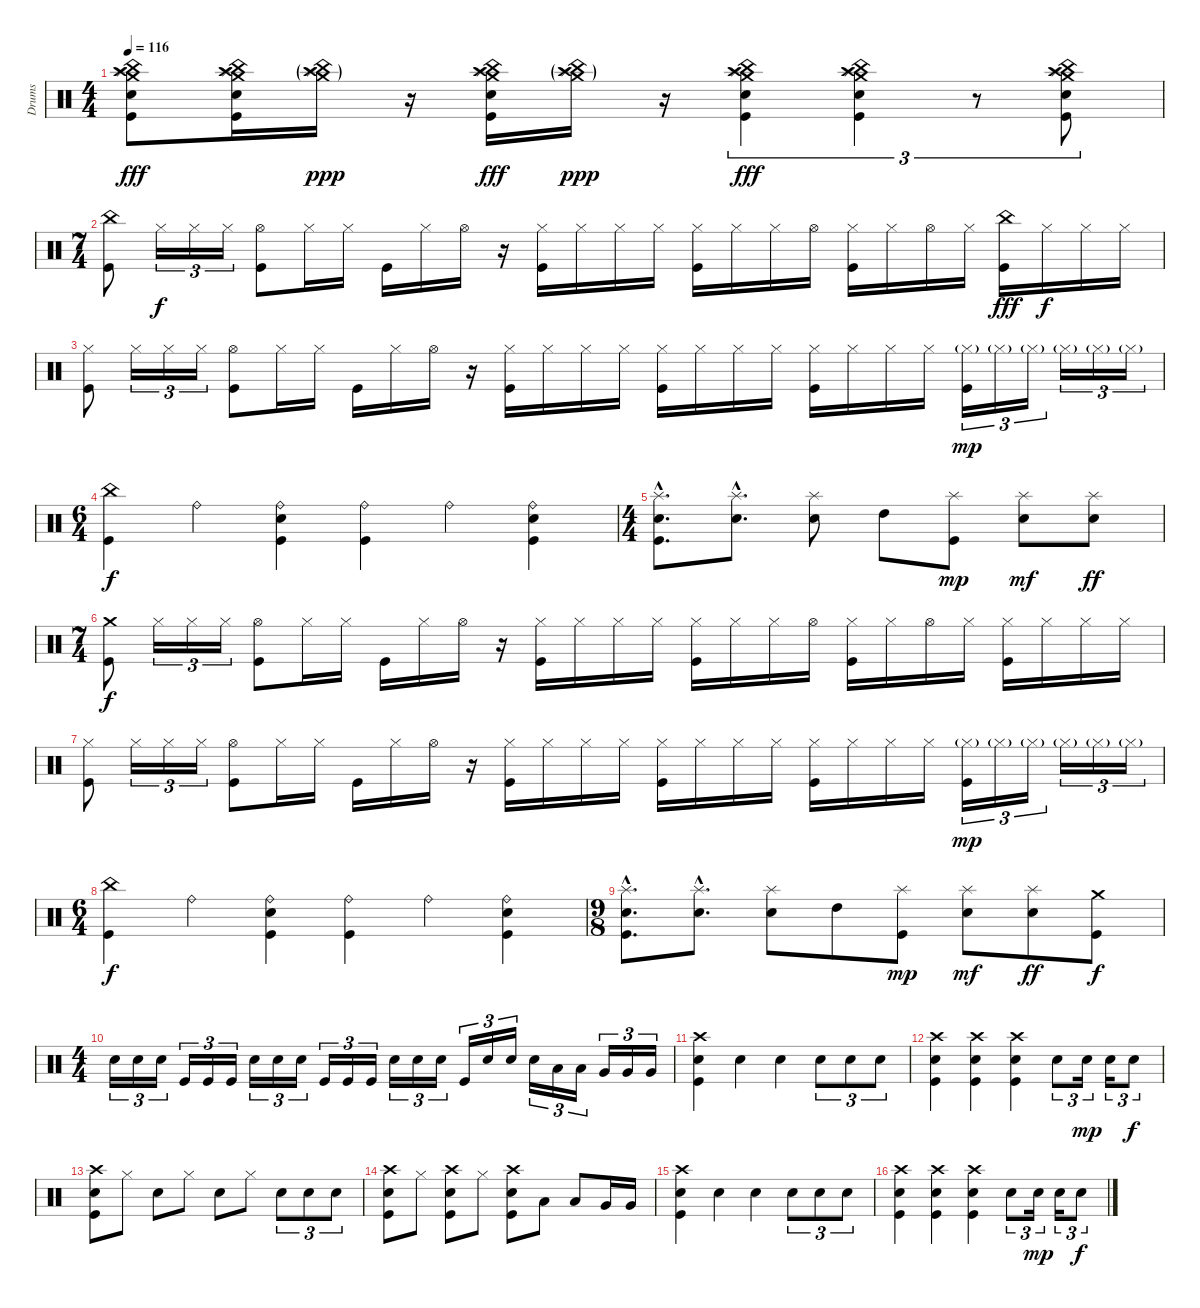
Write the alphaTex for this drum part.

\track ("Drums" "Drums") {instrument percussion}
\staff {score}
\articulation defaults
\ts (4 4)
\tempo 116
\clef neutral
\ks c
("Crash medium (hit)" "Crash high (hit)" "China (hit)" "Splash (hit)" "Electric Snare (hit)" "Kick (hit)").8{dy fff} ("Crash medium (hit)" "Crash high (hit)" "China (hit)" "Splash (hit)" "Electric Snare (hit)" "Kick (hit)").16 ("Crash medium (hit)"{g} "Crash high (hit)"{g} "China (hit)"{g} "Splash (hit)"{g}).16{dy ppp} r.16 ("Crash medium (hit)" "Crash high (hit)" "China (hit)" "Splash (hit)" "Electric Snare (hit)" "Kick (hit)").16{dy fff} ("Crash medium (hit)"{g} "Crash high (hit)"{g} "China (hit)"{g} "Splash (hit)"{g}).16{dy ppp} r.16 ("Crash medium (hit)" "Crash high (hit)" "China (hit)" "Splash (hit)" "Electric Snare (hit)" "Kick (hit)").4{tu (3 2) dy fff} ("Crash medium (hit)" "Crash high (hit)" "China (hit)" "Splash (hit)" "Electric Snare (hit)" "Kick (hit)").4{tu (3 2)} r.8{tu (3 2)} ("Crash medium (hit)" "Crash high (hit)" "China (hit)" "Splash (hit)" "Electric Snare (hit)" "Kick (hit)").8{tu (3 2)} |
\ts (7 4)
("China (hit)" "Kick (hit)").8 "Hi-Hat (closed)".16{tu (3 2) dy f} "Hi-Hat (closed)".16{tu (3 2)} "Hi-Hat (closed)".16{tu (3 2)} ("Hi-Hat (open)" "Kick (hit)").8 "Hi-Hat (closed)".16 "Hi-Hat (closed)".16 "Kick (hit)".16 "Hi-Hat (closed)".16 "Hi-Hat (open)".16 r.16 ("Hi-Hat (closed)" "Kick (hit)").16 "Hi-Hat (closed)".16 "Hi-Hat (closed)".16 "Hi-Hat (closed)".16 ("Hi-Hat (closed)" "Kick (hit)").16 "Hi-Hat (closed)".16 "Hi-Hat (closed)".16 "Hi-Hat (open)".16 ("Hi-Hat (closed)" "Kick (hit)").16 "Hi-Hat (closed)".16 "Hi-Hat (open)".16 "Hi-Hat (closed)".16 ("China (hit)" "Kick (hit)").16{dy fff} "Hi-Hat (closed)".16{dy f} "Hi-Hat (closed)".16 "Hi-Hat (closed)".16 |
("Hi-Hat (closed)" "Kick (hit)").8 "Hi-Hat (closed)".16{tu (3 2)} "Hi-Hat (closed)".16{tu (3 2)} "Hi-Hat (closed)".16{tu (3 2)} ("Hi-Hat (open)" "Kick (hit)").8 "Hi-Hat (closed)".16 "Hi-Hat (closed)".16 "Kick (hit)".16 "Hi-Hat (closed)".16 "Hi-Hat (open)".16 r.16 ("Hi-Hat (closed)" "Kick (hit)").16 "Hi-Hat (closed)".16 "Hi-Hat (closed)".16 "Hi-Hat (closed)".16 ("Hi-Hat (closed)" "Kick (hit)").16 "Hi-Hat (closed)".16 "Hi-Hat (closed)".16 "Hi-Hat (closed)".16 ("Hi-Hat (closed)" "Kick (hit)").16 "Hi-Hat (closed)".16 "Hi-Hat (closed)".16 "Hi-Hat (closed)".16 ("Hi-Hat (closed)"{g} "Kick (hit)").16{tu (3 2) dy mp} "Hi-Hat (closed)"{g}.16{tu (3 2)} "Hi-Hat (closed)"{g}.16{tu (3 2)} "Hi-Hat (closed)"{g}.16{tu (3 2)} "Hi-Hat (closed)"{g}.16{tu (3 2)} "Hi-Hat (closed)"{g}.16{tu (3 2)} |
\ts (6 4)
("China (hit)" "Kick (hit)").4{dy f} "Ride (bell)".4 ("Ride (bell)" "Electric Snare (hit)" "Kick (hit)").4 ("Ride (bell)" "Kick (hit)").4 "Ride (bell)".4 ("Ride (bell)" "Electric Snare (hit)" "Kick (hit)").4 |
\ts (4 4)
("Splash (hit)"{hac} "Electric Snare (hit)"{hac} "Kick (hit)"{hac}).8{d} ("Splash (hit)"{hac} "Electric Snare (hit)"{hac}).8{d} ("Splash (hit)" "Electric Snare (hit)").8 "High Tom (hit)".8 ("Splash (hit)" "Kick (hit)").8{dy mp} ("Splash (hit)" "Electric Snare (hit)").8{dy mf} ("Splash (hit)" "Electric Snare (hit)").8{dy ff} |
\ts (7 4)
("Crash medium (hit)" "Kick (hit)").8{dy f} "Hi-Hat (closed)".16{tu (3 2)} "Hi-Hat (closed)".16{tu (3 2)} "Hi-Hat (closed)".16{tu (3 2)} ("Hi-Hat (open)" "Kick (hit)").8 "Hi-Hat (closed)".16 "Hi-Hat (closed)".16 "Kick (hit)".16 "Hi-Hat (closed)".16 "Hi-Hat (open)".16 r.16 ("Hi-Hat (closed)" "Kick (hit)").16 "Hi-Hat (closed)".16 "Hi-Hat (closed)".16 "Hi-Hat (closed)".16 ("Hi-Hat (closed)" "Kick (hit)").16 "Hi-Hat (closed)".16 "Hi-Hat (closed)".16 "Hi-Hat (open)".16 ("Hi-Hat (closed)" "Kick (hit)").16 "Hi-Hat (closed)".16 "Hi-Hat (open)".16 "Hi-Hat (closed)".16 ("Hi-Hat (closed)" "Kick (hit)").16 "Hi-Hat (closed)".16 "Hi-Hat (closed)".16 "Hi-Hat (closed)".16 |
("Hi-Hat (closed)" "Kick (hit)").8 "Hi-Hat (closed)".16{tu (3 2)} "Hi-Hat (closed)".16{tu (3 2)} "Hi-Hat (closed)".16{tu (3 2)} ("Hi-Hat (open)" "Kick (hit)").8 "Hi-Hat (closed)".16 "Hi-Hat (closed)".16 "Kick (hit)".16 "Hi-Hat (closed)".16 "Hi-Hat (open)".16 r.16 ("Hi-Hat (closed)" "Kick (hit)").16 "Hi-Hat (closed)".16 "Hi-Hat (closed)".16 "Hi-Hat (closed)".16 ("Hi-Hat (closed)" "Kick (hit)").16 "Hi-Hat (closed)".16 "Hi-Hat (closed)".16 "Hi-Hat (closed)".16 ("Hi-Hat (closed)" "Kick (hit)").16 "Hi-Hat (closed)".16 "Hi-Hat (closed)".16 "Hi-Hat (closed)".16 ("Hi-Hat (closed)"{g} "Kick (hit)").16{tu (3 2) dy mp} "Hi-Hat (closed)"{g}.16{tu (3 2)} "Hi-Hat (closed)"{g}.16{tu (3 2)} "Hi-Hat (closed)"{g}.16{tu (3 2)} "Hi-Hat (closed)"{g}.16{tu (3 2)} "Hi-Hat (closed)"{g}.16{tu (3 2)} |
\ts (6 4)
("China (hit)" "Kick (hit)").4{dy f} "Ride (bell)".4 ("Ride (bell)" "Electric Snare (hit)" "Kick (hit)").4 ("Ride (bell)" "Kick (hit)").4 "Ride (bell)".4 ("Ride (bell)" "Electric Snare (hit)" "Kick (hit)").4 |
\ts (9 8)
("Splash (hit)"{hac} "Electric Snare (hit)"{hac} "Kick (hit)"{hac}).8{d} ("Splash (hit)"{hac} "Electric Snare (hit)"{hac}).8{d} ("Splash (hit)" "Electric Snare (hit)").8 "High Tom (hit)".8 ("Splash (hit)" "Kick (hit)").8{dy mp} ("Splash (hit)" "Electric Snare (hit)").8{dy mf} ("Splash (hit)" "Electric Snare (hit)").8{dy ff} ("Crash medium (hit)" "Kick (hit)").8{dy f} |
\ts (4 4)
"Electric Snare (hit)".16{tu (3 2)} "Electric Snare (hit)".16{tu (3 2)} "Electric Snare (hit)".16{tu (3 2)} "Kick (hit)".16{tu (3 2)} "Kick (hit)".16{tu (3 2)} "Kick (hit)".16{tu (3 2)} "Electric Snare (hit)".16{tu (3 2)} "Electric Snare (hit)".16{tu (3 2)} "Electric Snare (hit)".16{tu (3 2)} "Kick (hit)".16{tu (3 2)} "Kick (hit)".16{tu (3 2)} "Kick (hit)".16{tu (3 2)} "Electric Snare (hit)".16{tu (3 2)} "Electric Snare (hit)".16{tu (3 2)} "Electric Snare (hit)".16{tu (3 2)} "Kick (hit)".16{tu (3 2)} "Electric Snare (hit)".16{tu (3 2)} "Electric Snare (hit)".16{tu (3 2)} "Electric Snare (hit)".16{tu (3 2)} "Low Tom (hit)".16{tu (3 2)} "Low Tom (hit)".16{tu (3 2)} "Very Low Tom (hit)".16{tu (3 2)} "Very Low Tom (hit)".16{tu (3 2)} "Very Low Tom (hit)".16{tu (3 2)} |
("Crash high (hit)" "Electric Snare (hit)" "Kick (hit)").4 "Electric Snare (hit)".4 "Electric Snare (hit)".4 "Electric Snare (hit)".8{tu (3 2)} "Electric Snare (hit)".8{tu (3 2)} "Electric Snare (hit)".8{tu (3 2)} |
("Crash high (hit)" "Electric Snare (hit)" "Kick (hit)").4 ("Crash high (hit)" "Electric Snare (hit)" "Kick (hit)").4 ("Crash high (hit)" "Electric Snare (hit)" "Kick (hit)").4 "Electric Snare (hit)".8{tu (3 2)} "Electric Snare (hit)".16{tu (3 2) dy mp} "Electric Snare (hit)".16{tu (3 2)} "Electric Snare (hit)".8{tu (3 2) dy f} |
("Crash high (hit)" "Electric Snare (hit)" "Kick (hit)").8 "Hi-Hat (closed)".8 "Electric Snare (hit)".8 "Hi-Hat (closed)".8 "Electric Snare (hit)".8 "Hi-Hat (closed)".8 "Electric Snare (hit)".8{tu (3 2)} "Electric Snare (hit)".8{tu (3 2)} "Electric Snare (hit)".8{tu (3 2)} |
("Crash high (hit)" "Electric Snare (hit)" "Kick (hit)").8 "Hi-Hat (closed)".8 ("Crash high (hit)" "Electric Snare (hit)" "Kick (hit)").8 "Hi-Hat (closed)".8 ("Crash high (hit)" "Electric Snare (hit)" "Kick (hit)").8 "Low Tom (hit)".8 "Low Tom (hit)".8 "Very Low Tom (hit)".16 "Very Low Tom (hit)".16 |
("Crash high (hit)" "Electric Snare (hit)" "Kick (hit)").4 "Electric Snare (hit)".4 "Electric Snare (hit)".4 "Electric Snare (hit)".8{tu (3 2)} "Electric Snare (hit)".8{tu (3 2)} "Electric Snare (hit)".8{tu (3 2)} |
("Crash high (hit)" "Electric Snare (hit)" "Kick (hit)").4 ("Crash high (hit)" "Electric Snare (hit)" "Kick (hit)").4 ("Crash high (hit)" "Electric Snare (hit)" "Kick (hit)").4 "Electric Snare (hit)".8{tu (3 2)} "Electric Snare (hit)".16{tu (3 2) dy mp} "Electric Snare (hit)".16{tu (3 2)} "Electric Snare (hit)".8{tu (3 2) dy f}
